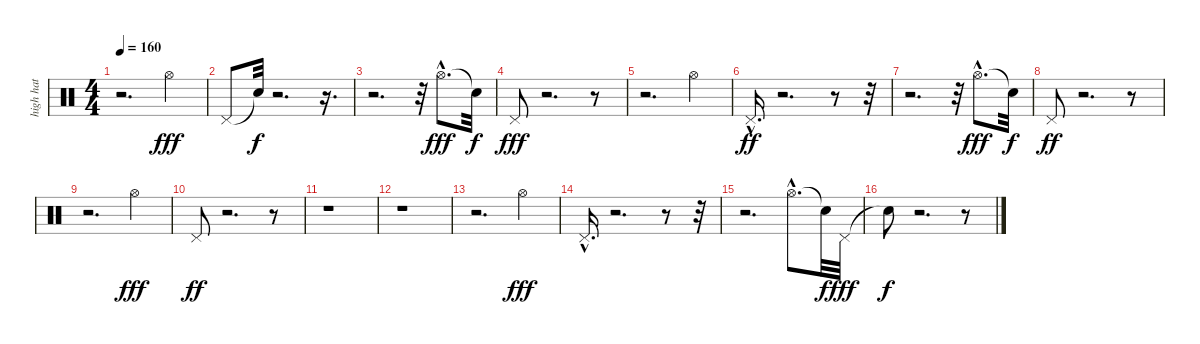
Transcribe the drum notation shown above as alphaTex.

\track ("high hat" "high hat") {instrument percussion}
\staff {score}
\articulation defaults
\ts (4 4)
\tempo 160
\clef neutral
\ks c
r.2{d dy f} "Hi-Hat (open)".4{dy fff} |
"Pedal Hi-Hat (hit)".8 "Snare (hit)"{t}.32{dy f} r.2{d} r.16{d} |
r.2{d} r.32 "Hi-Hat (open)"{hac}.8{d dy fff} "Snare (hit)"{t}.32{dy f} |
"Pedal Hi-Hat (hit)".8{dy fff} r.2{d} r.8 |
r.2{d} "Hi-Hat (open)".4 |
"Pedal Hi-Hat (hit)"{hac}.16{d dy ff} r.2{d} r.8 r.32 |
r.2{d} r.32 "Hi-Hat (open)"{hac}.8{d dy fff} "Snare (hit)"{t}.32{dy f} |
"Pedal Hi-Hat (hit)".8{dy ff} r.2{d} r.8 |
r.2{d} "Hi-Hat (open)".4{dy fff} |
"Pedal Hi-Hat (hit)".8{dy ff} r.2{d} r.8 |
r.1 |
r.1 |
r.2{d} "Hi-Hat (open)".4{dy fff} |
"Pedal Hi-Hat (hit)"{hac}.16{d} r.2{d} r.8 r.32 |
r.2{d} "Hi-Hat (open)"{hac}.8{d} "Snare (hit)"{t}.32{dy f} "Pedal Hi-Hat (hit)".32{dy fff} |
"Snare (hit)"{t}.8{dy f} r.2{d} r.8
